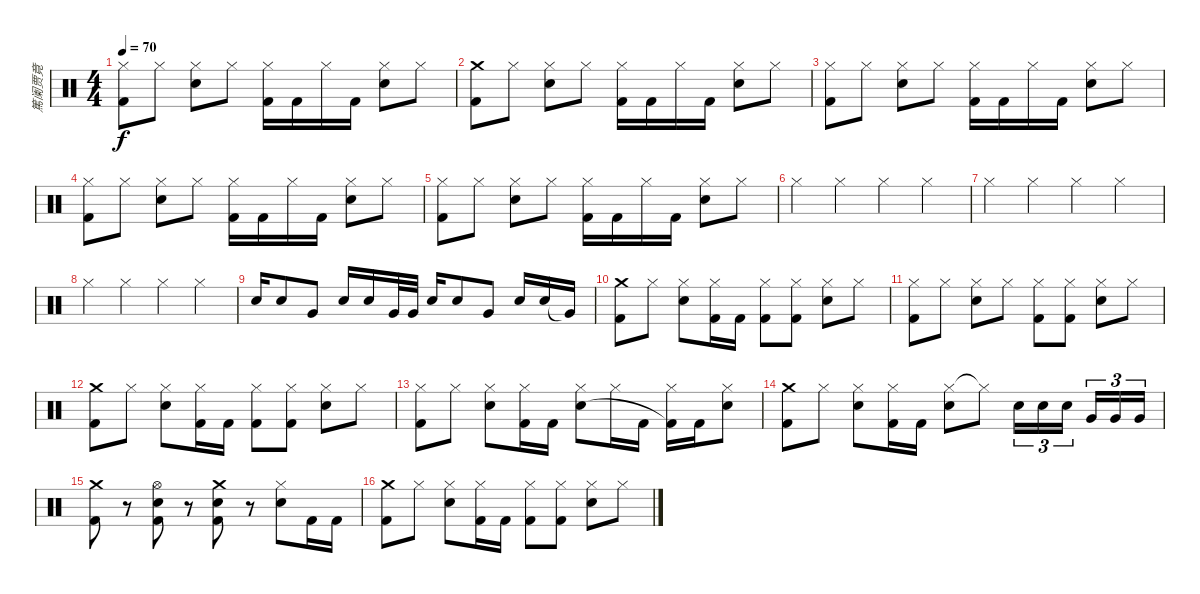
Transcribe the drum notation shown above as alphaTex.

\track ("篤阑贾竟" "篤阑贾竟") {instrument percussion}
\staff {score}
\articulation defaults
\ts (4 4)
\tempo 70
\clef neutral
\ks c
("Hi-Hat (closed)" "Kick (hit) 2").8{dy f} "Hi-Hat (closed)".8 ("Hi-Hat (closed)" "Snare (hit) 2").8 "Hi-Hat (closed)".8 ("Hi-Hat (closed)" "Kick (hit) 2").16 "Kick (hit) 2".16 "Hi-Hat (closed)".16 "Kick (hit) 2".16 ("Hi-Hat (closed)" "Snare (hit) 2").8 "Hi-Hat (closed)".8 |
("Crash medium (hit)" "Kick (hit) 2").8 "Hi-Hat (closed)".8 ("Hi-Hat (closed)" "Snare (hit) 2").8 "Hi-Hat (closed)".8 ("Hi-Hat (closed)" "Kick (hit) 2").16 "Kick (hit) 2".16 "Hi-Hat (closed)".16 "Kick (hit) 2".16 ("Hi-Hat (closed)" "Snare (hit) 2").8 "Hi-Hat (closed)".8 |
("Hi-Hat (closed)" "Kick (hit) 2").8 "Hi-Hat (closed)".8 ("Hi-Hat (closed)" "Snare (hit) 2").8 "Hi-Hat (closed)".8 ("Hi-Hat (closed)" "Kick (hit) 2").16 "Kick (hit) 2".16 "Hi-Hat (closed)".16 "Kick (hit) 2".16 ("Hi-Hat (closed)" "Snare (hit) 2").8 "Hi-Hat (closed)".8 |
("Hi-Hat (closed)" "Kick (hit) 2").8 "Hi-Hat (closed)".8 ("Hi-Hat (closed)" "Snare (hit) 2").8 "Hi-Hat (closed)".8 ("Hi-Hat (closed)" "Kick (hit) 2").16 "Kick (hit) 2".16 "Hi-Hat (closed)".16 "Kick (hit) 2".16 ("Hi-Hat (closed)" "Snare (hit) 2").8 "Hi-Hat (closed)".8 |
("Hi-Hat (closed)" "Kick (hit) 2").8 "Hi-Hat (closed)".8 ("Hi-Hat (closed)" "Snare (hit) 2").8 "Hi-Hat (closed)".8 ("Hi-Hat (closed)" "Kick (hit) 2").16 "Kick (hit) 2".16 "Hi-Hat (closed)".16 "Kick (hit) 2".16 ("Hi-Hat (closed)" "Snare (hit) 2").8 "Hi-Hat (closed)".8 |
"Hi-Hat (closed)".4 "Hi-Hat (closed)".4 "Hi-Hat (closed)".4 "Hi-Hat (closed)".4 |
"Hi-Hat (closed)".4 "Hi-Hat (closed)".4 "Hi-Hat (closed)".4 "Hi-Hat (closed)".4 |
"Hi-Hat (closed)".4 "Hi-Hat (closed)".4 "Hi-Hat (closed)".4 "Hi-Hat (closed)".4 |
"Snare (hit) 2".16 "Snare (hit) 2".8 "Very Low Tom (hit)".8 "Snare (hit) 2".16 "Snare (hit) 2".16 "Very Low Tom (hit)".32 "Very Low Tom (hit)".32 "Snare (hit) 2".16 "Snare (hit) 2".8 "Very Low Tom (hit)".8 "Snare (hit) 2".16 "Snare (hit) 2".16 "Very Low Tom (hit)"{t}.16 |
("Crash medium (hit)" "Kick (hit) 2").8 "Hi-Hat (closed)".8 ("Hi-Hat (closed)" "Snare (hit) 2").8 ("Hi-Hat (closed)" "Kick (hit) 2").16 "Kick (hit) 2".16 ("Hi-Hat (closed)" "Kick (hit) 2").8 ("Hi-Hat (closed)" "Kick (hit) 2").8 ("Hi-Hat (closed)" "Snare (hit) 2").8 "Hi-Hat (closed)".8 |
("Hi-Hat (closed)" "Kick (hit) 2").8 "Hi-Hat (closed)".8 ("Hi-Hat (closed)" "Snare (hit) 2").8 "Hi-Hat (closed)".8 ("Hi-Hat (closed)" "Kick (hit) 2").8 ("Hi-Hat (closed)" "Kick (hit) 2").8 ("Hi-Hat (closed)" "Snare (hit) 2").8 "Hi-Hat (closed)".8 |
("Crash medium (hit)" "Kick (hit) 2").8 "Hi-Hat (closed)".8 ("Hi-Hat (closed)" "Snare (hit) 2").8 ("Hi-Hat (closed)" "Kick (hit) 2").16 "Kick (hit) 2".16 ("Hi-Hat (closed)" "Kick (hit) 2").8 ("Hi-Hat (closed)" "Kick (hit) 2").8 ("Hi-Hat (closed)" "Snare (hit) 2").8 "Hi-Hat (closed)".8 |
("Hi-Hat (closed)" "Kick (hit) 2").8 "Hi-Hat (closed)".8 ("Hi-Hat (closed)" "Snare (hit) 2").8 ("Hi-Hat (closed)" "Kick (hit) 2").16 "Kick (hit) 2".16 ("Hi-Hat (closed)" "Snare (hit) 2").8 "Hi-Hat (closed)".16 "Kick (hit) 2".16 ("Hi-Hat (closed)" "Kick (hit) 2"{t}).16 "Kick (hit) 2".16 ("Hi-Hat (closed)" "Snare (hit) 2").8 |
("Crash medium (hit)" "Kick (hit) 2").8 "Hi-Hat (closed)".8 ("Hi-Hat (closed)" "Snare (hit) 2").8 ("Hi-Hat (closed)" "Kick (hit) 2").16 "Kick (hit) 2".16 ("Hi-Hat (closed)" "Snare (hit) 2").8 "Hi-Hat (closed)"{t}.8 "Snare (hit) 2".16{tu (3 2)} "Snare (hit) 2".16{tu (3 2)} "Snare (hit) 2".16{tu (3 2) beam splitsecondary} "Very Low Tom (hit)".16{tu (3 2)} "Very Low Tom (hit)".16{tu (3 2)} "Very Low Tom (hit)".16{tu (3 2)} |
("Crash medium (hit)" "Kick (hit) 2").8 r.8 ("Hi-Hat (open)" "Snare (hit) 2" "Kick (hit) 2").8 r.8 ("Crash medium (hit)" "Snare (hit) 2" "Kick (hit) 2").8 r.8 ("Hi-Hat (closed)" "Snare (hit) 2").8 "Kick (hit) 2".16 "Kick (hit) 2".16 |
("Crash medium (hit)" "Kick (hit) 2").8 "Hi-Hat (closed)".8 ("Hi-Hat (closed)" "Snare (hit) 2").8 ("Hi-Hat (closed)" "Kick (hit) 2").16 "Kick (hit) 2".16 ("Hi-Hat (closed)" "Kick (hit) 2").8 ("Hi-Hat (closed)" "Kick (hit) 2").8 ("Hi-Hat (closed)" "Snare (hit) 2").8 "Hi-Hat (closed)".8
